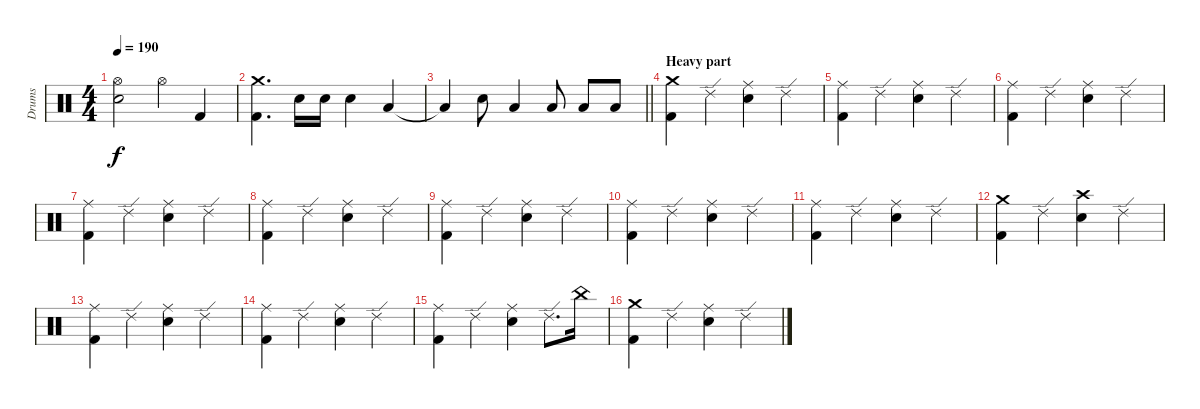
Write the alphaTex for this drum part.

\track ("Drums" "Drums") {instrument percussion}
\staff {score}
\articulation defaults
\ts (4 4)
\tempo 190
\clef neutral
\ks c
("Hi-Hat (open)" "Snare (hit) 2").2{dy f} "Hi-Hat (open)".4 "Kick (hit) 2".4 |
("Crash medium (hit)" "Kick (hit) 2").4{d} "Snare (hit) 2".16 "Snare (hit) 2".16 "Snare (hit) 2".4 "Low Tom (hit)".4 |
\barLineRight lightlight "Low Tom (hit)"{t}.4 "Snare (hit) 2".8 "Low Tom (hit)".4 "Low Tom (hit)".8 "Low Floor Tom (hit)".8 "Low Floor Tom (hit)".8
|
\section ("" "Heavy part")
("Crash medium (hit)" "Kick (hit) 2").4 "Ride (edge) 2".4 ("Ride (middle)" "Snare (hit) 2").4 "Ride (edge) 2".4 |
("Ride (middle)" "Kick (hit) 2").4 "Ride (edge) 2".4 ("Ride (middle)" "Snare (hit) 2").4 "Ride (edge) 2".4 |
("Ride (middle)" "Kick (hit) 2").4 "Ride (edge) 2".4 ("Ride (middle)" "Snare (hit) 2").4 "Ride (edge) 2".4 |
("Ride (middle)" "Kick (hit) 2").4 "Ride (edge) 2".4 ("Ride (middle)" "Snare (hit) 2").4 "Ride (edge) 2".4 |
("Ride (middle)" "Kick (hit) 2").4 "Ride (edge) 2".4 ("Ride (middle)" "Snare (hit) 2").4 "Ride (edge) 2".4 |
("Ride (middle)" "Kick (hit) 2").4 "Ride (edge) 2".4 ("Ride (middle)" "Snare (hit) 2").4 "Ride (edge) 2".4 |
("Ride (middle)" "Kick (hit) 2").4 "Ride (edge) 2".4 ("Ride (middle)" "Snare (hit) 2").4 "Ride (edge) 2".4 |
("Ride (middle)" "Kick (hit) 2").4 "Ride (edge) 2".4 ("Ride (middle)" "Snare (hit) 2").4 "Ride (edge) 2".4 |
("Crash medium (hit)" "Kick (hit) 2").4 "Ride (edge) 2".4 ("Crash high (hit)" "Snare (hit) 2").4 "Ride (edge) 2".4 |
("Ride (middle)" "Kick (hit) 2").4 "Ride (edge) 2".4 ("Ride (middle)" "Snare (hit) 2").4 "Ride (edge) 2".4 |
("Ride (middle)" "Kick (hit) 2").4 "Ride (edge) 2".4 ("Ride (middle)" "Snare (hit) 2").4 "Ride (edge) 2".4 |
("Ride (middle)" "Kick (hit) 2").4 "Ride (edge) 2".4 ("Ride (middle)" "Snare (hit) 2").4 "Ride (edge) 2".8{d} "China (hit)".16 |
("Crash medium (hit)" "Kick (hit) 2").4 "Ride (edge) 2".4 ("Ride (middle)" "Snare (hit) 2").4 "Ride (edge) 2".4
